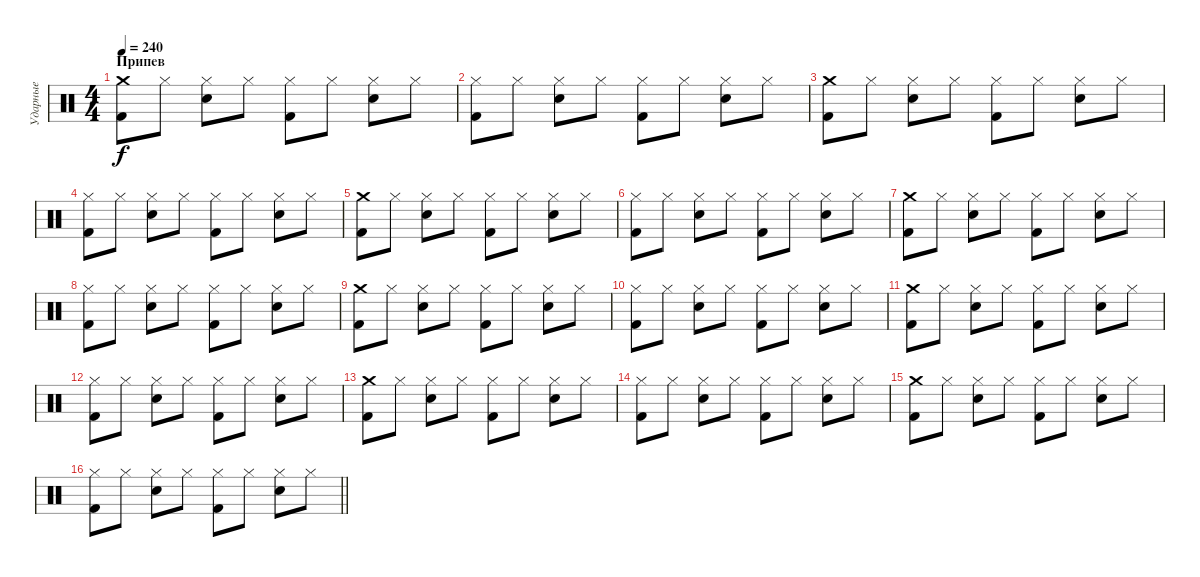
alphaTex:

\track ("Ударные" "Ударные") {instrument percussion}
\staff {score}
\articulation defaults
\ts (4 4)
\section ("" "Припев")
\tempo 240
\clef neutral
\ks c
("Crash medium (hit)" "Kick (hit) 2").8{dy f} "Hi-Hat (closed)".8 ("Hi-Hat (closed)" "Snare (hit) 2").8 "Hi-Hat (closed)".8 ("Hi-Hat (closed)" "Kick (hit) 2").8 "Hi-Hat (closed)".8 ("Hi-Hat (closed)" "Snare (hit) 2").8 "Hi-Hat (closed)".8 |
("Hi-Hat (closed)" "Kick (hit) 2").8 "Hi-Hat (closed)".8 ("Hi-Hat (closed)" "Snare (hit) 2").8 "Hi-Hat (closed)".8 ("Hi-Hat (closed)" "Kick (hit) 2").8 "Hi-Hat (closed)".8 ("Hi-Hat (closed)" "Snare (hit) 2").8 "Hi-Hat (closed)".8 |
("Crash medium (hit)" "Kick (hit) 2").8 "Hi-Hat (closed)".8 ("Hi-Hat (closed)" "Snare (hit) 2").8 "Hi-Hat (closed)".8 ("Hi-Hat (closed)" "Kick (hit) 2").8 "Hi-Hat (closed)".8 ("Hi-Hat (closed)" "Snare (hit) 2").8 "Hi-Hat (closed)".8 |
("Hi-Hat (closed)" "Kick (hit) 2").8 "Hi-Hat (closed)".8 ("Hi-Hat (closed)" "Snare (hit) 2").8 "Hi-Hat (closed)".8 ("Hi-Hat (closed)" "Kick (hit) 2").8 "Hi-Hat (closed)".8 ("Hi-Hat (closed)" "Snare (hit) 2").8 "Hi-Hat (closed)".8 |
("Crash medium (hit)" "Kick (hit) 2").8 "Hi-Hat (closed)".8 ("Hi-Hat (closed)" "Snare (hit) 2").8 "Hi-Hat (closed)".8 ("Hi-Hat (closed)" "Kick (hit) 2").8 "Hi-Hat (closed)".8 ("Hi-Hat (closed)" "Snare (hit) 2").8 "Hi-Hat (closed)".8 |
("Hi-Hat (closed)" "Kick (hit) 2").8 "Hi-Hat (closed)".8 ("Hi-Hat (closed)" "Snare (hit) 2").8 "Hi-Hat (closed)".8 ("Hi-Hat (closed)" "Kick (hit) 2").8 "Hi-Hat (closed)".8 ("Hi-Hat (closed)" "Snare (hit) 2").8 "Hi-Hat (closed)".8 |
("Crash medium (hit)" "Kick (hit) 2").8 "Hi-Hat (closed)".8 ("Hi-Hat (closed)" "Snare (hit) 2").8 "Hi-Hat (closed)".8 ("Hi-Hat (closed)" "Kick (hit) 2").8 "Hi-Hat (closed)".8 ("Hi-Hat (closed)" "Snare (hit) 2").8 "Hi-Hat (closed)".8 |
("Hi-Hat (closed)" "Kick (hit) 2").8 "Hi-Hat (closed)".8 ("Hi-Hat (closed)" "Snare (hit) 2").8 "Hi-Hat (closed)".8 ("Hi-Hat (closed)" "Kick (hit) 2").8 "Hi-Hat (closed)".8 ("Hi-Hat (closed)" "Snare (hit) 2").8 "Hi-Hat (closed)".8 |
("Crash medium (hit)" "Kick (hit) 2").8 "Hi-Hat (closed)".8 ("Hi-Hat (closed)" "Snare (hit) 2").8 "Hi-Hat (closed)".8 ("Hi-Hat (closed)" "Kick (hit) 2").8 "Hi-Hat (closed)".8 ("Hi-Hat (closed)" "Snare (hit) 2").8 "Hi-Hat (closed)".8 |
("Hi-Hat (closed)" "Kick (hit) 2").8 "Hi-Hat (closed)".8 ("Hi-Hat (closed)" "Snare (hit) 2").8 "Hi-Hat (closed)".8 ("Hi-Hat (closed)" "Kick (hit) 2").8 "Hi-Hat (closed)".8 ("Hi-Hat (closed)" "Snare (hit) 2").8 "Hi-Hat (closed)".8 |
("Crash medium (hit)" "Kick (hit) 2").8 "Hi-Hat (closed)".8 ("Hi-Hat (closed)" "Snare (hit) 2").8 "Hi-Hat (closed)".8 ("Hi-Hat (closed)" "Kick (hit) 2").8 "Hi-Hat (closed)".8 ("Hi-Hat (closed)" "Snare (hit) 2").8 "Hi-Hat (closed)".8 |
("Hi-Hat (closed)" "Kick (hit) 2").8 "Hi-Hat (closed)".8 ("Hi-Hat (closed)" "Snare (hit) 2").8 "Hi-Hat (closed)".8 ("Hi-Hat (closed)" "Kick (hit) 2").8 "Hi-Hat (closed)".8 ("Hi-Hat (closed)" "Snare (hit) 2").8 "Hi-Hat (closed)".8 |
("Crash medium (hit)" "Kick (hit) 2").8 "Hi-Hat (closed)".8 ("Hi-Hat (closed)" "Snare (hit) 2").8 "Hi-Hat (closed)".8 ("Hi-Hat (closed)" "Kick (hit) 2").8 "Hi-Hat (closed)".8 ("Hi-Hat (closed)" "Snare (hit) 2").8 "Hi-Hat (closed)".8 |
("Hi-Hat (closed)" "Kick (hit) 2").8 "Hi-Hat (closed)".8 ("Hi-Hat (closed)" "Snare (hit) 2").8 "Hi-Hat (closed)".8 ("Hi-Hat (closed)" "Kick (hit) 2").8 "Hi-Hat (closed)".8 ("Hi-Hat (closed)" "Snare (hit) 2").8 "Hi-Hat (closed)".8 |
("Crash medium (hit)" "Kick (hit) 2").8 "Hi-Hat (closed)".8 ("Hi-Hat (closed)" "Snare (hit) 2").8 "Hi-Hat (closed)".8 ("Hi-Hat (closed)" "Kick (hit) 2").8 "Hi-Hat (closed)".8 ("Hi-Hat (closed)" "Snare (hit) 2").8 "Hi-Hat (closed)".8 |
\barLineRight lightlight
("Hi-Hat (closed)" "Kick (hit) 2").8 "Hi-Hat (closed)".8 ("Hi-Hat (closed)" "Snare (hit) 2").8 "Hi-Hat (closed)".8 ("Hi-Hat (closed)" "Kick (hit) 2").8 "Hi-Hat (closed)".8 ("Hi-Hat (closed)" "Snare (hit) 2").8 "Hi-Hat (closed)".8
